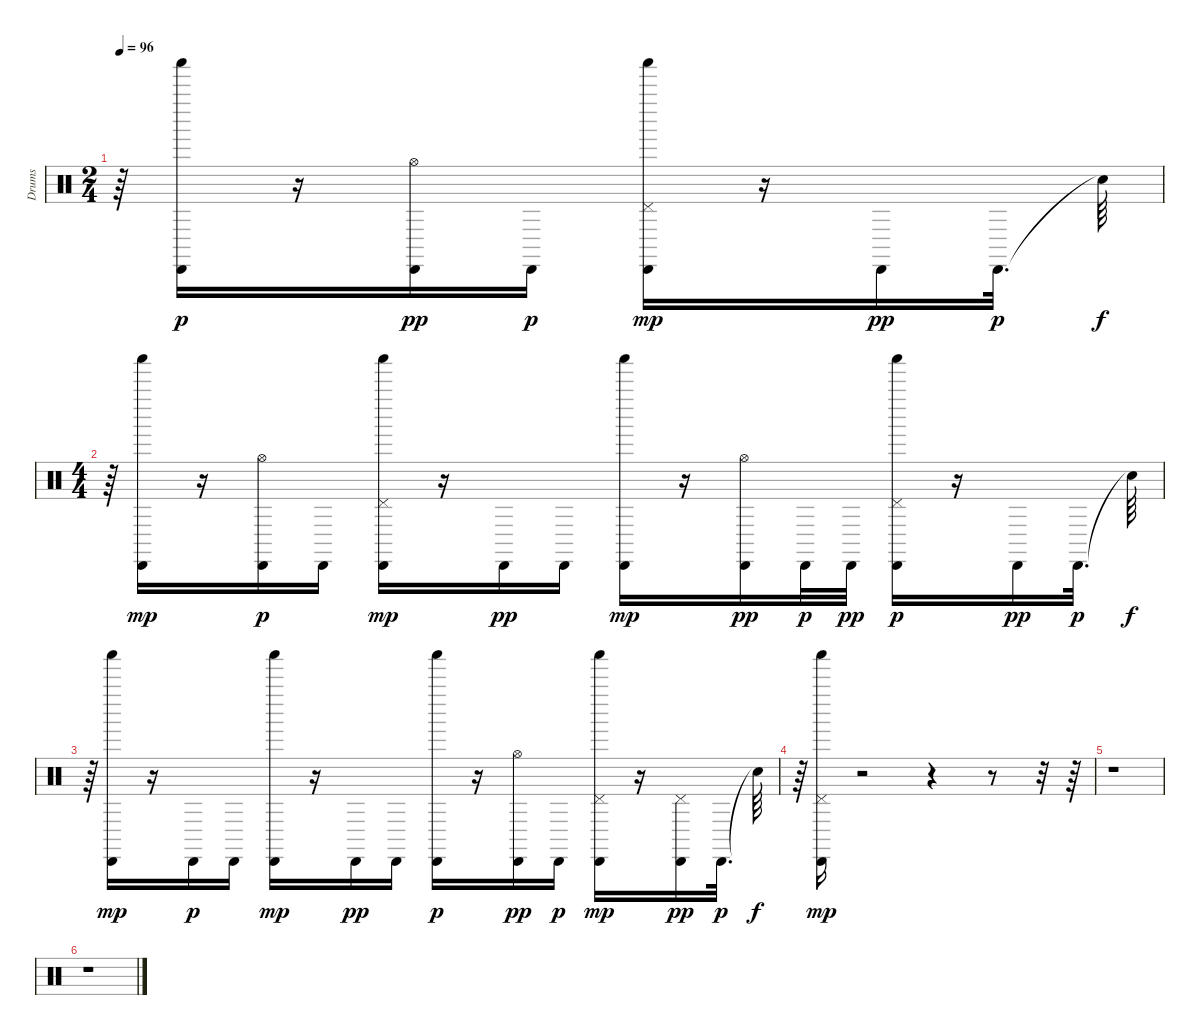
\track ("Drums" "Drums") {instrument percussion}
\staff {score}
\articulation defaults
\ts (2 4)
\tempo 96
\clef neutral
\ks c
r.64{dy f} ("Shaker (hit)" "Cabasa (hit)").16{dy p} r.16 ("Hi-Hat (open)" "Cabasa (hit)").16{dy pp} "Cabasa (hit)".16{dy p} ("Cabasa (hit)" "Shaker (hit)" "Pedal Hi-Hat (hit)").16{dy mp} r.16 "Cabasa (hit)".16{dy pp} "Cabasa (hit)".32{d dy p} "Snare (hit)"{t}.64{dy f} |
\ts (4 4)
r.64 ("Cabasa (hit)" "Shaker (hit)").16{dy mp} r.16 ("Hi-Hat (open)" "Cabasa (hit)").16{dy p} "Cabasa (hit)".16 ("Shaker (hit)" "Pedal Hi-Hat (hit)" "Cabasa (hit)").16{dy mp} r.16 "Cabasa (hit)".16{dy pp} "Cabasa (hit)".16 ("Cabasa (hit)" "Shaker (hit)").16{dy mp} r.16 ("Hi-Hat (open)" "Cabasa (hit)").16{dy pp} "Cabasa (hit)".32{dy p} "Cabasa (hit)".32{dy pp} ("Cabasa (hit)" "Pedal Hi-Hat (hit)" "Shaker (hit)").16{dy p} r.16 "Cabasa (hit)".16{dy pp} "Cabasa (hit)".32{d dy p} "Snare (hit)"{t}.64{dy f} |
r.64 ("Shaker (hit)" "Cabasa (hit)").16{dy mp} r.16 "Cabasa (hit)".16{dy p} "Cabasa (hit)".16 ("Shaker (hit)" "Cabasa (hit)").16{dy mp} r.16 "Cabasa (hit)".16{dy pp} "Cabasa (hit)".16 ("Shaker (hit)" "Cabasa (hit)").16{dy p} r.16 ("Hi-Hat (open)" "Cabasa (hit)").16{dy pp} "Cabasa (hit)".16{dy p} ("Shaker (hit)" "Cabasa (hit)" "Pedal Hi-Hat (hit)").16{dy mp} r.16 ("Pedal Hi-Hat (hit)" "Cabasa (hit)").16{dy pp} "Cabasa (hit)".32{d dy p} "Snare (hit)"{t}.64{dy f} |
r.64 ("Cabasa (hit)" "Pedal Hi-Hat (hit)" "Shaker (hit)").16{dy mp} r.2 r.4 r.8 r.32 r.64 |
r.1 |
r.1
